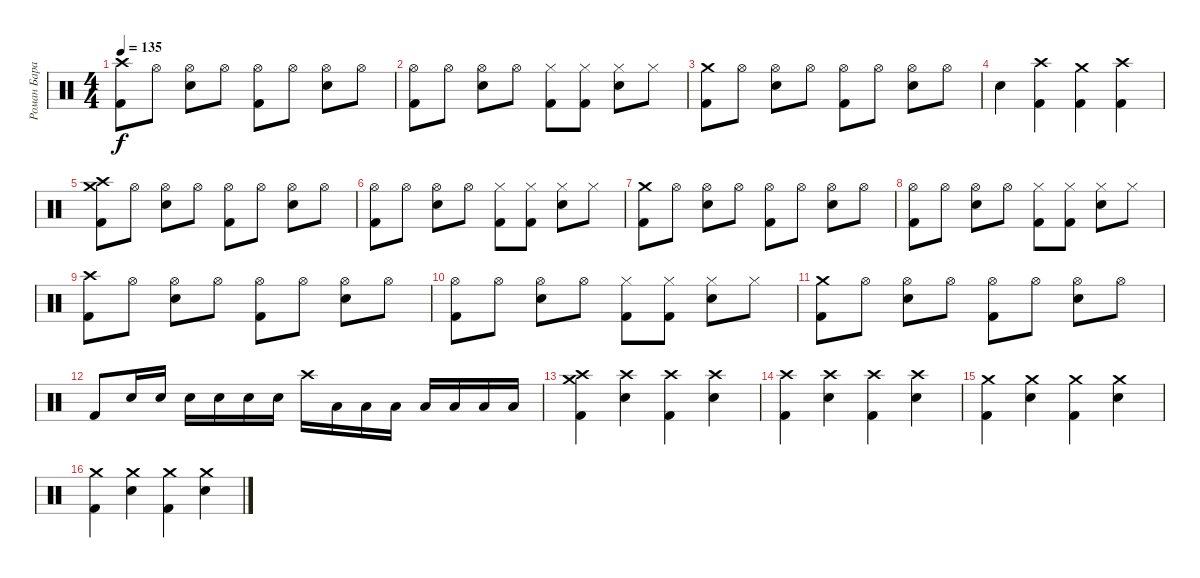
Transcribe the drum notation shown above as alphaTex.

\track ("Роман Баранюк" "Роман Бара") {instrument percussion}
\staff {score}
\articulation defaults
\ts (4 4)
\tempo 135
\clef neutral
\ks c
("Crash high (hit)" "Kick (hit) 2").8{dy f} "Hi-Hat (open)".8 ("Hi-Hat (open)" "Snare (hit) 2").8 "Hi-Hat (open)".8 ("Hi-Hat (open)" "Kick (hit) 2").8 "Hi-Hat (open)".8 ("Hi-Hat (open)" "Snare (hit) 2").8 "Hi-Hat (open)".8 |
("Hi-Hat (open)" "Kick (hit) 2").8 "Hi-Hat (open)".8 ("Hi-Hat (open)" "Snare (hit) 2").8 "Hi-Hat (open)".8 ("Hi-Hat (closed)" "Kick (hit) 2").8 ("Hi-Hat (closed)" "Kick (hit) 2").8 ("Hi-Hat (closed)" "Snare (hit) 2").8 "Hi-Hat (closed)".8 |
("Crash medium (hit)" "Kick (hit) 2").8 "Hi-Hat (open)".8 ("Hi-Hat (open)" "Snare (hit) 2").8 "Hi-Hat (open)".8 ("Hi-Hat (open)" "Kick (hit) 2").8 "Hi-Hat (open)".8 ("Hi-Hat (open)" "Snare (hit) 2").8 "Hi-Hat (open)".8 |
"Snare (hit) 2".4 ("Crash high (hit)" "Kick (hit) 2").4 ("Crash medium (hit)" "Kick (hit) 2").4 ("Crash high (hit)" "Kick (hit) 2").4 |
("Crash high (hit)" "Crash medium (hit)" "Kick (hit) 2").8 "Hi-Hat (open)".8 ("Hi-Hat (open)" "Snare (hit) 2").8 "Hi-Hat (open)".8 ("Hi-Hat (open)" "Kick (hit) 2").8 "Hi-Hat (open)".8 ("Hi-Hat (open)" "Snare (hit) 2").8 "Hi-Hat (open)".8 |
("Hi-Hat (open)" "Kick (hit) 2").8 "Hi-Hat (open)".8 ("Hi-Hat (open)" "Snare (hit) 2").8 "Hi-Hat (open)".8 ("Hi-Hat (closed)" "Kick (hit) 2").8 ("Hi-Hat (closed)" "Kick (hit) 2").8 ("Hi-Hat (closed)" "Snare (hit) 2").8 "Hi-Hat (closed)".8 |
("Crash medium (hit)" "Kick (hit) 2").8 "Hi-Hat (open)".8 ("Hi-Hat (open)" "Snare (hit) 2").8 "Hi-Hat (open)".8 ("Hi-Hat (open)" "Kick (hit) 2").8 "Hi-Hat (open)".8 ("Hi-Hat (open)" "Snare (hit) 2").8 "Hi-Hat (open)".8 |
("Hi-Hat (open)" "Kick (hit) 2").8 "Hi-Hat (open)".8 ("Hi-Hat (open)" "Snare (hit) 2").8 "Hi-Hat (open)".8 ("Hi-Hat (closed)" "Kick (hit) 2").8 ("Hi-Hat (closed)" "Kick (hit) 2").8 ("Hi-Hat (closed)" "Snare (hit) 2").8 "Hi-Hat (closed)".8 |
("Crash high (hit)" "Kick (hit) 2").8 "Hi-Hat (open)".8 ("Hi-Hat (open)" "Snare (hit) 2").8 "Hi-Hat (open)".8 ("Hi-Hat (open)" "Kick (hit) 2").8 "Hi-Hat (open)".8 ("Hi-Hat (open)" "Snare (hit) 2").8 "Hi-Hat (open)".8 |
("Hi-Hat (open)" "Kick (hit) 2").8 "Hi-Hat (open)".8 ("Hi-Hat (open)" "Snare (hit) 2").8 "Hi-Hat (open)".8 ("Hi-Hat (closed)" "Kick (hit) 2").8 ("Hi-Hat (closed)" "Kick (hit) 2").8 ("Hi-Hat (closed)" "Snare (hit) 2").8 "Hi-Hat (closed)".8 |
("Crash medium (hit)" "Kick (hit) 2").8 "Hi-Hat (open)".8 ("Hi-Hat (open)" "Snare (hit) 2").8 "Hi-Hat (open)".8 ("Hi-Hat (open)" "Kick (hit) 2").8 "Hi-Hat (open)".8 ("Hi-Hat (open)" "Snare (hit) 2").8 "Hi-Hat (open)".8 |
"Kick (hit) 2".8 "Snare (hit) 2".16 "Snare (hit) 2".16 "Snare (hit) 2".16 "Snare (hit) 2".16 "Snare (hit) 2".16 "Snare (hit) 2".16 "Crash high (hit)".16 "Low Tom (hit)".16 "Low Tom (hit)".16 "Low Tom (hit)".16 "Low Tom (hit)".16 "Low Tom (hit)".16 "Low Tom (hit)".16 "Low Tom (hit)".16 |
("Crash high (hit)" "Crash medium (hit)" "Kick (hit) 2").4 ("Crash high (hit)" "Snare (hit) 2").4 ("Crash high (hit)" "Kick (hit) 2").4 ("Crash high (hit)" "Snare (hit) 2").4 |
("Crash high (hit)" "Kick (hit) 2").4 ("Crash high (hit)" "Snare (hit) 2").4 ("Crash high (hit)" "Kick (hit) 2").4 ("Crash high (hit)" "Snare (hit) 2").4 |
("Crash medium (hit)" "Kick (hit) 2").4 ("Crash medium (hit)" "Snare (hit) 2").4 ("Crash medium (hit)" "Kick (hit) 2").4 ("Crash medium (hit)" "Snare (hit) 2").4 |
("Crash medium (hit)" "Kick (hit) 2").4 ("Crash medium (hit)" "Snare (hit) 2").4 ("Crash medium (hit)" "Kick (hit) 2").4 ("Crash medium (hit)" "Snare (hit) 2").4
